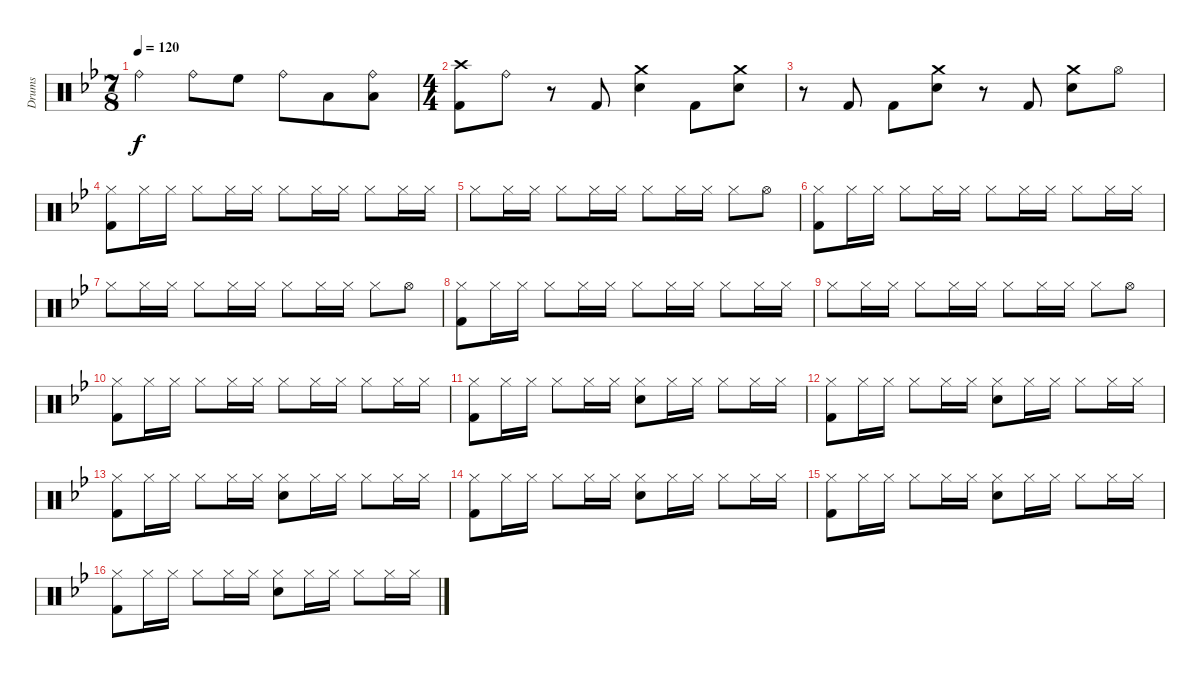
\track ("Drums" "Drums") {instrument percussion}
\staff {score}
\articulation defaults
\ts (7 8)
\tempo 120
\clef neutral
\ks bb "Ride (bell)".4{dy f} "Ride (bell)".8 "High Floor Tom (hit)".8 "Ride (bell)".8 "Low Tom (hit)".8
("Ride (bell)" "Low Tom (hit)").8 |
\ts (4 4)
("Crash high (hit)" "Kick (hit) 2").8 "Ride (bell)".8 r.8 "Kick (hit) 2".8 ("Crash medium (hit)" "Electric Snare (hit)").4 "Kick (hit) 2".8 ("Crash medium (hit)" "Electric Snare (hit)").8 |
r.8 "Kick (hit) 2".8 "Kick (hit) 2".8 ("Crash medium (hit)" "Electric Snare (hit)").8 r.8 "Kick (hit) 2".8 ("Crash medium (hit)" "Electric Snare (hit)").8 "Hi-Hat (open)".8 |
("Hi-Hat (closed)" "Kick (hit) 2").8 "Hi-Hat (closed)".16 "Hi-Hat (closed)".16 "Hi-Hat (closed)".8 "Hi-Hat (closed)".16 "Hi-Hat (closed)".16 "Hi-Hat (closed)".8 "Hi-Hat (closed)".16 "Hi-Hat (closed)".16 "Hi-Hat (closed)".8 "Hi-Hat (closed)".16 "Hi-Hat (closed)".16 |
"Hi-Hat (closed)".8 "Hi-Hat (closed)".16 "Hi-Hat (closed)".16 "Hi-Hat (closed)".8 "Hi-Hat (closed)".16 "Hi-Hat (closed)".16 "Hi-Hat (closed)".8 "Hi-Hat (closed)".16 "Hi-Hat (closed)".16 "Hi-Hat (closed)".8 "Hi-Hat (open)".8 |
("Hi-Hat (closed)" "Kick (hit) 2").8 "Hi-Hat (closed)".16 "Hi-Hat (closed)".16 "Hi-Hat (closed)".8 "Hi-Hat (closed)".16 "Hi-Hat (closed)".16 "Hi-Hat (closed)".8 "Hi-Hat (closed)".16 "Hi-Hat (closed)".16 "Hi-Hat (closed)".8 "Hi-Hat (closed)".16 "Hi-Hat (closed)".16 |
"Hi-Hat (closed)".8 "Hi-Hat (closed)".16 "Hi-Hat (closed)".16 "Hi-Hat (closed)".8 "Hi-Hat (closed)".16 "Hi-Hat (closed)".16 "Hi-Hat (closed)".8 "Hi-Hat (closed)".16 "Hi-Hat (closed)".16 "Hi-Hat (closed)".8 "Hi-Hat (open)".8 |
("Hi-Hat (closed)" "Kick (hit) 2").8 "Hi-Hat (closed)".16 "Hi-Hat (closed)".16 "Hi-Hat (closed)".8 "Hi-Hat (closed)".16 "Hi-Hat (closed)".16 "Hi-Hat (closed)".8 "Hi-Hat (closed)".16 "Hi-Hat (closed)".16 "Hi-Hat (closed)".8 "Hi-Hat (closed)".16 "Hi-Hat (closed)".16 |
"Hi-Hat (closed)".8 "Hi-Hat (closed)".16 "Hi-Hat (closed)".16 "Hi-Hat (closed)".8 "Hi-Hat (closed)".16 "Hi-Hat (closed)".16 "Hi-Hat (closed)".8 "Hi-Hat (closed)".16 "Hi-Hat (closed)".16 "Hi-Hat (closed)".8 "Hi-Hat (open)".8 |
("Hi-Hat (closed)" "Kick (hit) 2").8 "Hi-Hat (closed)".16 "Hi-Hat (closed)".16 "Hi-Hat (closed)".8 "Hi-Hat (closed)".16 "Hi-Hat (closed)".16 "Hi-Hat (closed)".8 "Hi-Hat (closed)".16 "Hi-Hat (closed)".16 "Hi-Hat (closed)".8 "Hi-Hat (closed)".16 "Hi-Hat (closed)".16 |
("Hi-Hat (closed)" "Kick (hit) 2").8 "Hi-Hat (closed)".16 "Hi-Hat (closed)".16 "Hi-Hat (closed)".8 "Hi-Hat (closed)".16 "Hi-Hat (closed)".16 ("Hi-Hat (closed)" "Electric Snare (hit)").8 "Hi-Hat (closed)".16 "Hi-Hat (closed)".16 "Hi-Hat (closed)".8 "Hi-Hat (closed)".16 "Hi-Hat (closed)".16 |
("Hi-Hat (closed)" "Kick (hit) 2").8 "Hi-Hat (closed)".16 "Hi-Hat (closed)".16 "Hi-Hat (closed)".8 "Hi-Hat (closed)".16 "Hi-Hat (closed)".16 ("Hi-Hat (closed)" "Electric Snare (hit)").8 "Hi-Hat (closed)".16 "Hi-Hat (closed)".16 "Hi-Hat (closed)".8 "Hi-Hat (closed)".16 "Hi-Hat (closed)".16 |
("Hi-Hat (closed)" "Kick (hit) 2").8 "Hi-Hat (closed)".16 "Hi-Hat (closed)".16 "Hi-Hat (closed)".8 "Hi-Hat (closed)".16 "Hi-Hat (closed)".16 ("Hi-Hat (closed)" "Electric Snare (hit)").8 "Hi-Hat (closed)".16 "Hi-Hat (closed)".16 "Hi-Hat (closed)".8 "Hi-Hat (closed)".16 "Hi-Hat (closed)".16 |
("Hi-Hat (closed)" "Kick (hit) 2").8 "Hi-Hat (closed)".16 "Hi-Hat (closed)".16 "Hi-Hat (closed)".8 "Hi-Hat (closed)".16 "Hi-Hat (closed)".16 ("Hi-Hat (closed)" "Electric Snare (hit)").8 "Hi-Hat (closed)".16 "Hi-Hat (closed)".16 "Hi-Hat (closed)".8 "Hi-Hat (closed)".16 "Hi-Hat (closed)".16 |
("Hi-Hat (closed)" "Kick (hit) 2").8 "Hi-Hat (closed)".16 "Hi-Hat (closed)".16 "Hi-Hat (closed)".8 "Hi-Hat (closed)".16 "Hi-Hat (closed)".16 ("Hi-Hat (closed)" "Electric Snare (hit)").8 "Hi-Hat (closed)".16 "Hi-Hat (closed)".16 "Hi-Hat (closed)".8 "Hi-Hat (closed)".16 "Hi-Hat (closed)".16 |
("Hi-Hat (closed)" "Kick (hit) 2").8 "Hi-Hat (closed)".16 "Hi-Hat (closed)".16 "Hi-Hat (closed)".8 "Hi-Hat (closed)".16 "Hi-Hat (closed)".16 ("Hi-Hat (closed)" "Electric Snare (hit)").8 "Hi-Hat (closed)".16 "Hi-Hat (closed)".16 "Hi-Hat (closed)".8 "Hi-Hat (closed)".16 "Hi-Hat (closed)".16
